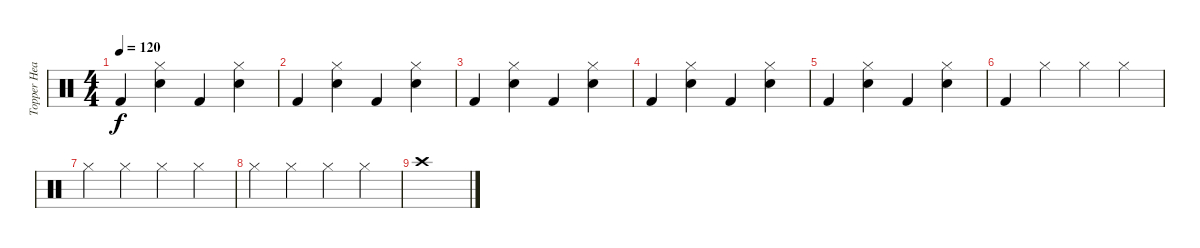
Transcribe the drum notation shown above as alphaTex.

\track ("Topper Headon" "Topper Hea") {instrument percussion}
\staff {score}
\articulation defaults
\ts (4 4)
\tempo 120
\clef neutral
\ks c "Kick (hit) 2".4{dy f}
("Hi-Hat (closed)" "Electric Snare (hit)").4 "Kick (hit) 2".4 ("Hi-Hat (closed)" "Electric Snare (hit)").4 |
"Kick (hit) 2".4{volume 10} ("Hi-Hat (closed)" "Electric Snare (hit)").4 "Kick (hit) 2".4 ("Hi-Hat (closed)" "Electric Snare (hit)").4 |
"Kick (hit) 2".4{volume 9} ("Hi-Hat (closed)" "Electric Snare (hit)").4 "Kick (hit) 2".4 ("Hi-Hat (closed)" "Electric Snare (hit)").4 |
"Kick (hit) 2".4 ("Hi-Hat (closed)" "Electric Snare (hit)").4 "Kick (hit) 2".4 ("Hi-Hat (closed)" "Electric Snare (hit)").4 |
"Kick (hit) 2".4{volume 8} ("Hi-Hat (closed)" "Electric Snare (hit)").4 "Kick (hit) 2".4 ("Hi-Hat (closed)" "Electric Snare (hit)").4 |
"Kick (hit) 2".4{volume 7} "Hi-Hat (closed)".4 "Hi-Hat (closed)".4 "Hi-Hat (closed)".4 |
"Hi-Hat (closed)".4{volume 5} "Hi-Hat (closed)".4 "Hi-Hat (closed)".4 "Hi-Hat (closed)".4 |
"Hi-Hat (closed)".4 "Hi-Hat (closed)".4 "Hi-Hat (closed)".4 "Hi-Hat (closed)".4 |
"Crash high (hit)".1
